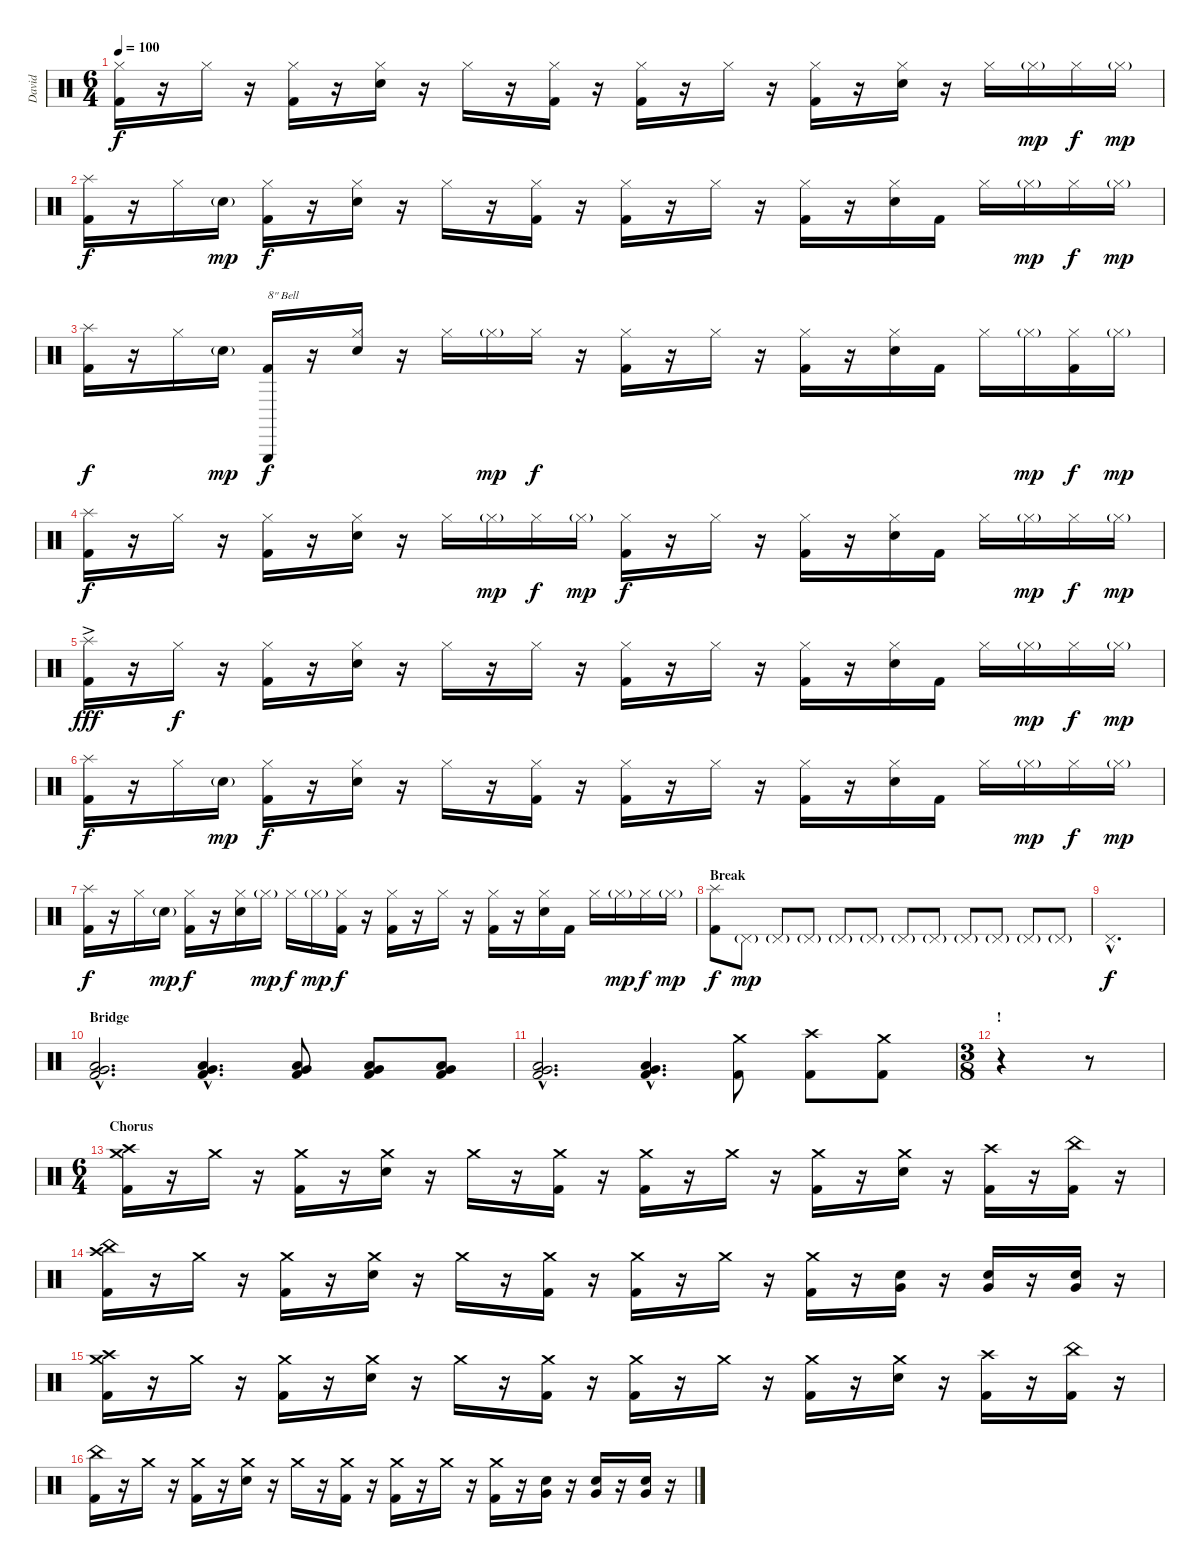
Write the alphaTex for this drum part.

\track ("David" "David") {instrument percussion}
\staff {score}
\articulation defaults
\ts (6 4)
\tempo 100
\clef neutral
\ks c
("Hi-Hat (closed)" "Kick (hit) 2").16{dy f} r.16 "Hi-Hat (closed)".16 r.16 ("Hi-Hat (closed)" "Kick (hit) 2").16 r.16 ("Hi-Hat (closed)" "Electric Snare (hit)").16 r.16 "Hi-Hat (closed)".16 r.16 ("Hi-Hat (closed)" "Kick (hit) 2").16 r.16 ("Hi-Hat (closed)" "Kick (hit) 2").16 r.16 "Hi-Hat (closed)".16 r.16 ("Hi-Hat (closed)" "Kick (hit) 2").16 r.16 ("Hi-Hat (closed)" "Electric Snare (hit)").16 r.16 "Hi-Hat (closed)".16 "Hi-Hat (closed)"{g}.16{dy mp} "Hi-Hat (closed)".16{dy f} "Hi-Hat (closed)"{g}.16{dy mp} |
("Splash (hit)" "Kick (hit) 2").16{dy f} r.16 "Hi-Hat (closed)".16 "Electric Snare (hit)"{g}.16{dy mp} ("Hi-Hat (closed)" "Kick (hit) 2").16{dy f} r.16 ("Hi-Hat (closed)" "Electric Snare (hit)").16 r.16 "Hi-Hat (closed)".16 r.16 ("Hi-Hat (closed)" "Kick (hit) 2").16 r.16 ("Hi-Hat (closed)" "Kick (hit) 2").16 r.16 "Hi-Hat (closed)".16 r.16 ("Hi-Hat (closed)" "Kick (hit) 2").16 r.16 ("Hi-Hat (closed)" "Electric Snare (hit)").16 "Kick (hit) 2".16 "Hi-Hat (closed)".16 "Hi-Hat (closed)"{g}.16{dy mp} "Hi-Hat (closed)".16{dy f} "Hi-Hat (closed)"{g}.16{dy mp} |
("Splash (hit)" "Kick (hit) 2").16{dy f} r.16 "Hi-Hat (closed)".16 "Electric Snare (hit)"{g}.16{dy mp} ("Triangle (hit)" "Kick (hit) 2").16{txt "8\" Bell" dy f} r.16 ("Hi-Hat (closed)" "Electric Snare (hit)").16 r.16 "Hi-Hat (closed)".16 "Hi-Hat (closed)"{g}.16{dy mp} "Hi-Hat (closed)".16{dy f} r.16 ("Hi-Hat (closed)" "Kick (hit) 2").16 r.16 "Hi-Hat (closed)".16 r.16 ("Hi-Hat (closed)" "Kick (hit) 2").16 r.16 ("Hi-Hat (closed)" "Electric Snare (hit)").16 "Kick (hit) 2".16 "Hi-Hat (closed)".16 "Hi-Hat (closed)"{g}.16{dy mp} ("Hi-Hat (closed)" "Kick (hit) 2").16{dy f} "Hi-Hat (closed)"{g}.16{dy mp} |
("Splash (hit)" "Kick (hit) 2").16{dy f} r.16 "Hi-Hat (closed)".16 r.16 ("Hi-Hat (closed)" "Kick (hit) 2").16 r.16 ("Hi-Hat (closed)" "Electric Snare (hit)").16 r.16 "Hi-Hat (closed)".16 "Hi-Hat (closed)"{g}.16{dy mp} "Hi-Hat (closed)".16{dy f} "Hi-Hat (closed)"{g}.16{dy mp} ("Hi-Hat (closed)" "Kick (hit) 2").16{dy f} r.16 "Hi-Hat (closed)".16 r.16 ("Hi-Hat (closed)" "Kick (hit) 2").16 r.16 ("Hi-Hat (closed)" "Electric Snare (hit)").16 "Kick (hit) 2".16 "Hi-Hat (closed)".16 "Hi-Hat (closed)"{g}.16{dy mp} "Hi-Hat (closed)".16{dy f} "Hi-Hat (closed)"{g}.16{dy mp} |
("Splash (hit)"{ac} "Kick (hit) 2").16{dy fff} r.16 "Hi-Hat (closed)".16{dy f} r.16 ("Hi-Hat (closed)" "Kick (hit) 2").16 r.16 ("Hi-Hat (closed)" "Electric Snare (hit)").16 r.16 "Hi-Hat (closed)".16 r.16 "Hi-Hat (closed)".16 r.16 ("Hi-Hat (closed)" "Kick (hit) 2").16 r.16 "Hi-Hat (closed)".16 r.16 ("Hi-Hat (closed)" "Kick (hit) 2").16 r.16 ("Hi-Hat (closed)" "Electric Snare (hit)").16 "Kick (hit) 2".16 "Hi-Hat (closed)".16 "Hi-Hat (closed)"{g}.16{dy mp} "Hi-Hat (closed)".16{dy f} "Hi-Hat (closed)"{g}.16{dy mp} |
("Splash (hit)" "Kick (hit) 2").16{dy f} r.16 "Hi-Hat (closed)".16 "Electric Snare (hit)"{g}.16{dy mp} ("Hi-Hat (closed)" "Kick (hit) 2").16{dy f} r.16 ("Hi-Hat (closed)" "Electric Snare (hit)").16 r.16 "Hi-Hat (closed)".16 r.16 ("Hi-Hat (closed)" "Kick (hit) 2").16 r.16 ("Hi-Hat (closed)" "Kick (hit) 2").16 r.16 "Hi-Hat (closed)".16 r.16 ("Hi-Hat (closed)" "Kick (hit) 2").16 r.16 ("Hi-Hat (closed)" "Electric Snare (hit)").16 "Kick (hit) 2".16 "Hi-Hat (closed)".16 "Hi-Hat (closed)"{g}.16{dy mp} "Hi-Hat (closed)".16{dy f} "Hi-Hat (closed)"{g}.16{dy mp} |
("Splash (hit)" "Kick (hit) 2").16{dy f} r.16 "Hi-Hat (closed)".16 "Electric Snare (hit)"{g}.16{dy mp} ("Hi-Hat (closed)" "Kick (hit) 2").16{dy f} r.16 ("Hi-Hat (closed)" "Electric Snare (hit)").16 "Hi-Hat (closed)"{g}.16{dy mp} "Hi-Hat (closed)".16{dy f} "Hi-Hat (closed)"{g}.16{dy mp} ("Hi-Hat (closed)" "Kick (hit) 2").16{dy f} r.16 ("Hi-Hat (closed)" "Kick (hit) 2").16 r.16 "Hi-Hat (closed)".16 r.16 ("Hi-Hat (closed)" "Kick (hit) 2").16 r.16 ("Hi-Hat (closed)" "Electric Snare (hit)").16 "Kick (hit) 2".16 "Hi-Hat (closed)".16 "Hi-Hat (closed)"{g}.16{dy mp} "Hi-Hat (closed)".16{dy f} "Hi-Hat (closed)"{g}.16{dy mp} |
\section ("" "Break")
("Splash (hit)" "Kick (hit) 2").8{dy f volume 13} "Pedal Hi-Hat (hit)"{g}.8{dy mp} "Pedal Hi-Hat (hit)"{g}.8 "Pedal Hi-Hat (hit)"{g}.8 "Pedal Hi-Hat (hit)"{g}.8 "Pedal Hi-Hat (hit)"{g}.8 "Pedal Hi-Hat (hit)"{g}.8 "Pedal Hi-Hat (hit)"{g}.8 "Pedal Hi-Hat (hit)"{g}.8 "Pedal Hi-Hat (hit)"{g}.8 "Pedal Hi-Hat (hit)"{g}.8 "Pedal Hi-Hat (hit)"{g}.8 |
"Pedal Hi-Hat (hit)"{hac}.1{d dy f} |
\section ("" "Bridge")
("Very Low Tom (hit)"{hac} "Low Floor Tom (hit)"{hac} "Kick (hit) 2"{hac}).2{d} ("Very Low Tom (hit)"{hac} "Low Floor Tom (hit)"{hac} "Kick (hit) 2"{hac}).4{d} ("Very Low Tom (hit)" "Low Floor Tom (hit)" "Kick (hit) 2").8 ("Very Low Tom (hit)" "Low Floor Tom (hit)" "Kick (hit) 2").8 ("Very Low Tom (hit)" "Low Floor Tom (hit)" "Kick (hit) 2").8 |
("Very Low Tom (hit)"{hac} "Low Floor Tom (hit)"{hac} "Kick (hit) 2"{hac}).2{d} ("Very Low Tom (hit)"{hac} "Low Floor Tom (hit)"{hac} "Kick (hit) 2"{hac}).4{d} ("Crash medium (hit)" "Kick (hit) 2").8 ("Crash high (hit)" "Kick (hit) 2").8 ("Crash medium (hit)" "Kick (hit) 2").8 |
\ts (3 8)
\section ("" "!")
r.4 r.8 |
\ts (6 4)
\section ("" "Chorus")
("Crash medium (hit)" "Crash high (hit)" "Kick (hit) 2").16 r.16 "Crash medium (hit)".16 r.16 ("Crash medium (hit)" "Kick (hit) 2").16 r.16 ("Crash medium (hit)" "Electric Snare (hit)").16 r.16 "Crash medium (hit)".16 r.16 ("Crash medium (hit)" "Kick (hit) 2").16 r.16 ("Crash medium (hit)" "Kick (hit) 2").16 r.16 "Crash medium (hit)".16 r.16 ("Crash medium (hit)" "Kick (hit) 2").16 r.16 ("Crash medium (hit)" "Electric Snare (hit)").16 r.16 ("Crash high (hit)" "Kick (hit) 2").16 r.16 ("China (hit)" "Kick (hit) 2").16 r.16 |
("China (hit)" "Crash high (hit)" "Kick (hit) 2").16 r.16 "Crash medium (hit)".16 r.16 ("Crash medium (hit)" "Kick (hit) 2").16 r.16 ("Crash medium (hit)" "Electric Snare (hit)").16 r.16 "Crash medium (hit)".16 r.16 ("Crash medium (hit)" "Kick (hit) 2").16 r.16 ("Crash medium (hit)" "Kick (hit) 2").16 r.16 "Crash medium (hit)".16 r.16 ("Crash medium (hit)" "Kick (hit) 2").16 r.16 ("Electric Snare (hit)" "Very Low Tom (hit)").16 r.16 ("Electric Snare (hit)" "Very Low Tom (hit)").16 r.16 ("Electric Snare (hit)" "Very Low Tom (hit)").16 r.16 |
("Crash medium (hit)" "Crash high (hit)" "Kick (hit) 2").16 r.16 "Crash medium (hit)".16 r.16 ("Crash medium (hit)" "Kick (hit) 2").16 r.16 ("Crash medium (hit)" "Electric Snare (hit)").16 r.16 "Crash medium (hit)".16 r.16 ("Crash medium (hit)" "Kick (hit) 2").16 r.16 ("Crash medium (hit)" "Kick (hit) 2").16 r.16 "Crash medium (hit)".16 r.16 ("Crash medium (hit)" "Kick (hit) 2").16 r.16 ("Crash medium (hit)" "Electric Snare (hit)").16 r.16 ("Crash high (hit)" "Kick (hit) 2").16 r.16 ("China (hit)" "Kick (hit) 2").16 r.16 |
("China (hit)" "Kick (hit) 2").16 r.16 "Crash medium (hit)".16 r.16 ("Crash medium (hit)" "Kick (hit) 2").16 r.16 ("Crash medium (hit)" "Electric Snare (hit)").16 r.16 "Crash medium (hit)".16 r.16 ("Crash medium (hit)" "Kick (hit) 2").16 r.16 ("Crash medium (hit)" "Kick (hit) 2").16 r.16 "Crash medium (hit)".16 r.16 ("Crash medium (hit)" "Kick (hit) 2").16 r.16 ("Electric Snare (hit)" "Very Low Tom (hit)").16 r.16 ("Electric Snare (hit)" "Very Low Tom (hit)").16 r.16 ("Electric Snare (hit)" "Very Low Tom (hit)").16 r.16
